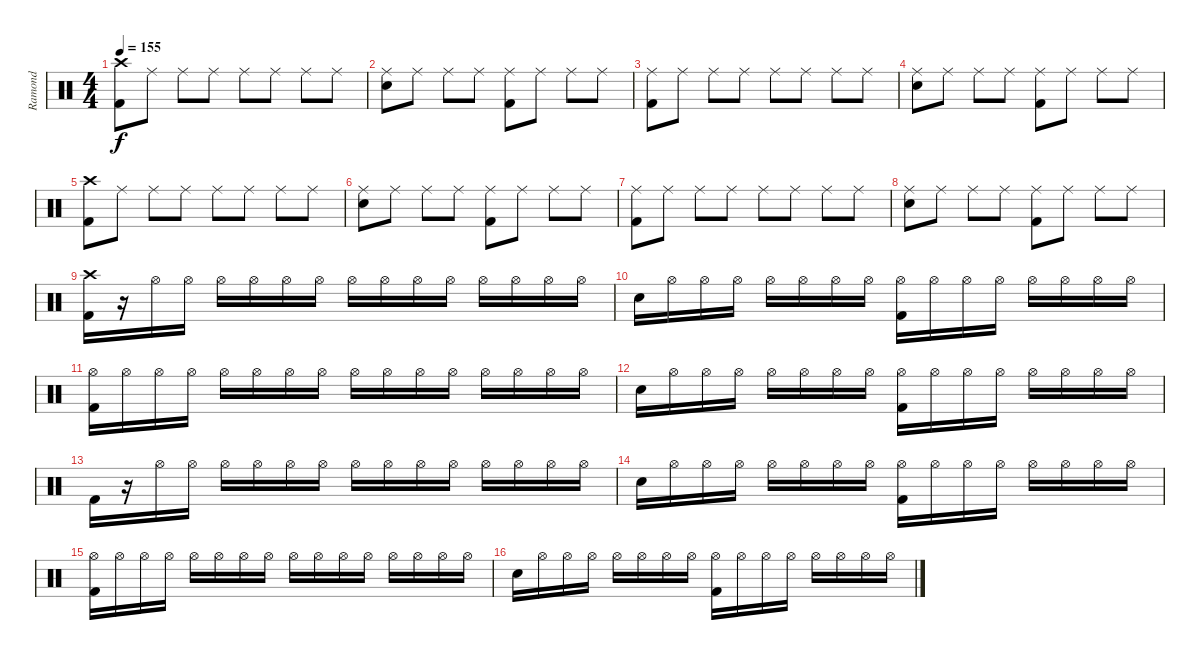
\track ("Ramond" "Ramond") {instrument percussion}
\staff {score}
\articulation defaults
\ts (4 4)
\tempo 155
\clef neutral
\ks c
("Crash high (hit)" "Kick (hit) 2").8{dy f} "Ride (middle)".8 "Ride (middle)".8 "Ride (middle)".8 "Ride (middle)".8 "Ride (middle)".8 "Ride (middle)".8 "Ride (middle)".8 |
("Ride (middle)" "Electric Snare (hit)").8 "Ride (middle)".8 "Ride (middle)".8 "Ride (middle)".8 ("Ride (middle)" "Kick (hit) 2").8 "Ride (middle)".8 "Ride (middle)".8 "Ride (middle)".8 |
("Ride (middle)" "Kick (hit) 2").8 "Ride (middle)".8 "Ride (middle)".8 "Ride (middle)".8 "Ride (middle)".8 "Ride (middle)".8 "Ride (middle)".8 "Ride (middle)".8 |
("Ride (middle)" "Electric Snare (hit)").8 "Ride (middle)".8 "Ride (middle)".8 "Ride (middle)".8 ("Ride (middle)" "Kick (hit) 2").8 "Ride (middle)".8 "Ride (middle)".8 "Ride (middle)".8 |
("Crash high (hit)" "Kick (hit) 2").8 "Ride (middle)".8 "Ride (middle)".8 "Ride (middle)".8 "Ride (middle)".8 "Ride (middle)".8 "Ride (middle)".8 "Ride (middle)".8 |
("Ride (middle)" "Electric Snare (hit)").8 "Ride (middle)".8 "Ride (middle)".8 "Ride (middle)".8 ("Ride (middle)" "Kick (hit) 2").8 "Ride (middle)".8 "Ride (middle)".8 "Ride (middle)".8 |
("Ride (middle)" "Kick (hit) 2").8 "Ride (middle)".8 "Ride (middle)".8 "Ride (middle)".8 "Ride (middle)".8 "Ride (middle)".8 "Ride (middle)".8 "Ride (middle)".8 |
("Ride (middle)" "Electric Snare (hit)").8 "Ride (middle)".8 "Ride (middle)".8 "Ride (middle)".8 ("Ride (middle)" "Kick (hit) 2").8 "Ride (middle)".8 "Ride (middle)".8 "Ride (middle)".8 |
("Crash high (hit)" "Kick (hit) 2").16 r.16 "Hi-Hat (open)".16 "Hi-Hat (open)".16 "Hi-Hat (open)".16 "Hi-Hat (open)".16 "Hi-Hat (open)".16 "Hi-Hat (open)".16 "Hi-Hat (open)".16 "Hi-Hat (open)".16 "Hi-Hat (open)".16 "Hi-Hat (open)".16 "Hi-Hat (open)".16 "Hi-Hat (open)".16 "Hi-Hat (open)".16 "Hi-Hat (open)".16 |
"Electric Snare (hit)".16 "Hi-Hat (open)".16 "Hi-Hat (open)".16 "Hi-Hat (open)".16 "Hi-Hat (open)".16 "Hi-Hat (open)".16 "Hi-Hat (open)".16 "Hi-Hat (open)".16 ("Hi-Hat (open)" "Kick (hit) 2").16 "Hi-Hat (open)".16 "Hi-Hat (open)".16 "Hi-Hat (open)".16 "Hi-Hat (open)".16 "Hi-Hat (open)".16 "Hi-Hat (open)".16 "Hi-Hat (open)".16 |
("Hi-Hat (open)" "Kick (hit) 2").16 "Hi-Hat (open)".16 "Hi-Hat (open)".16 "Hi-Hat (open)".16 "Hi-Hat (open)".16 "Hi-Hat (open)".16 "Hi-Hat (open)".16 "Hi-Hat (open)".16 "Hi-Hat (open)".16 "Hi-Hat (open)".16 "Hi-Hat (open)".16 "Hi-Hat (open)".16 "Hi-Hat (open)".16 "Hi-Hat (open)".16 "Hi-Hat (open)".16 "Hi-Hat (open)".16 |
"Electric Snare (hit)".16 "Hi-Hat (open)".16 "Hi-Hat (open)".16 "Hi-Hat (open)".16 "Hi-Hat (open)".16 "Hi-Hat (open)".16 "Hi-Hat (open)".16 "Hi-Hat (open)".16 ("Hi-Hat (open)" "Kick (hit) 2").16 "Hi-Hat (open)".16 "Hi-Hat (open)".16 "Hi-Hat (open)".16 "Hi-Hat (open)".16 "Hi-Hat (open)".16 "Hi-Hat (open)".16 "Hi-Hat (open)".16 |
"Kick (hit) 2".16 r.16 "Hi-Hat (open)".16 "Hi-Hat (open)".16 "Hi-Hat (open)".16 "Hi-Hat (open)".16 "Hi-Hat (open)".16 "Hi-Hat (open)".16 "Hi-Hat (open)".16 "Hi-Hat (open)".16 "Hi-Hat (open)".16 "Hi-Hat (open)".16 "Hi-Hat (open)".16 "Hi-Hat (open)".16 "Hi-Hat (open)".16 "Hi-Hat (open)".16 |
"Electric Snare (hit)".16 "Hi-Hat (open)".16 "Hi-Hat (open)".16 "Hi-Hat (open)".16 "Hi-Hat (open)".16 "Hi-Hat (open)".16 "Hi-Hat (open)".16 "Hi-Hat (open)".16 ("Hi-Hat (open)" "Kick (hit) 2").16 "Hi-Hat (open)".16 "Hi-Hat (open)".16 "Hi-Hat (open)".16 "Hi-Hat (open)".16 "Hi-Hat (open)".16 "Hi-Hat (open)".16 "Hi-Hat (open)".16 |
("Hi-Hat (open)" "Kick (hit) 2").16 "Hi-Hat (open)".16 "Hi-Hat (open)".16 "Hi-Hat (open)".16 "Hi-Hat (open)".16 "Hi-Hat (open)".16 "Hi-Hat (open)".16 "Hi-Hat (open)".16 "Hi-Hat (open)".16 "Hi-Hat (open)".16 "Hi-Hat (open)".16 "Hi-Hat (open)".16 "Hi-Hat (open)".16 "Hi-Hat (open)".16 "Hi-Hat (open)".16 "Hi-Hat (open)".16 |
"Electric Snare (hit)".16 "Hi-Hat (open)".16 "Hi-Hat (open)".16 "Hi-Hat (open)".16 "Hi-Hat (open)".16 "Hi-Hat (open)".16 "Hi-Hat (open)".16 "Hi-Hat (open)".16 ("Hi-Hat (open)" "Kick (hit) 2").16 "Hi-Hat (open)".16 "Hi-Hat (open)".16 "Hi-Hat (open)".16 "Hi-Hat (open)".16 "Hi-Hat (open)".16 "Hi-Hat (open)".16 "Hi-Hat (open)".16
